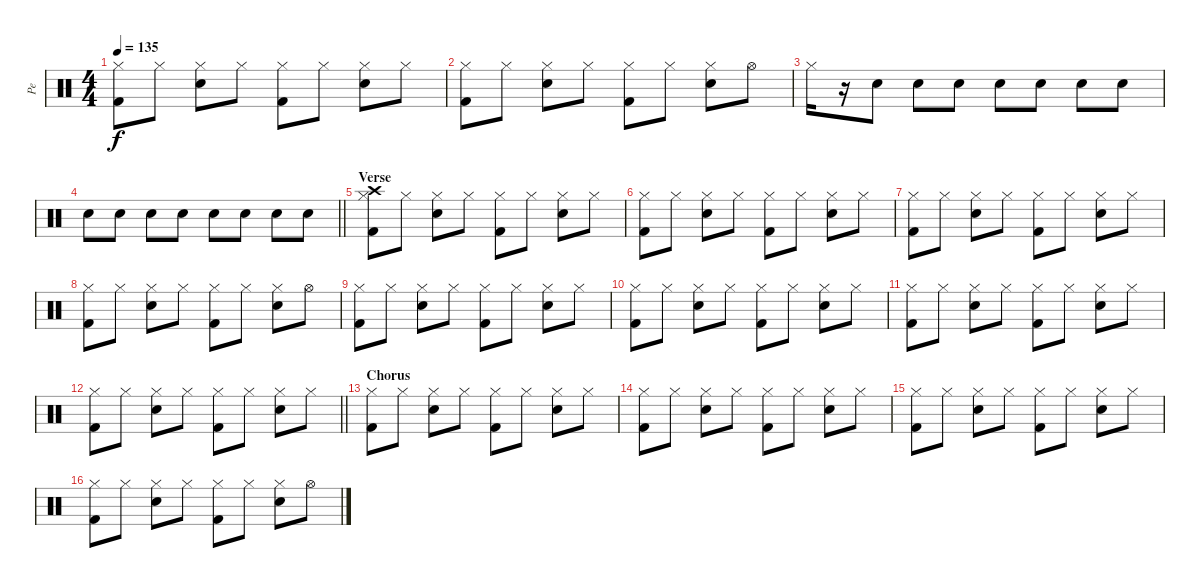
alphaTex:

\track ("Pe" "Pe") {instrument percussion}
\staff {score}
\articulation defaults
\ts (4 4)
\tempo 135
\clef neutral
\ks c
("Hi-Hat (closed)" "Kick (hit) 2").8{dy f} "Hi-Hat (closed)".8 ("Hi-Hat (closed)" "Electric Snare (hit)").8 "Hi-Hat (closed)".8 ("Hi-Hat (closed)" "Kick (hit) 2").8 "Hi-Hat (closed)".8 ("Hi-Hat (closed)" "Electric Snare (hit)").8 "Hi-Hat (closed)".8 |
("Hi-Hat (closed)" "Kick (hit) 2").8 "Hi-Hat (closed)".8 ("Hi-Hat (closed)" "Electric Snare (hit)").8 "Hi-Hat (closed)".8 ("Hi-Hat (closed)" "Kick (hit) 2").8 "Hi-Hat (closed)".8 ("Hi-Hat (closed)" "Electric Snare (hit)").8 "Hi-Hat (open)".8 |
"Hi-Hat (closed)".16 r.16{volume 6} "Electric Snare (hit)".8{volume 16} "Electric Snare (hit)".8 "Electric Snare (hit)".8 "Electric Snare (hit)".8 "Electric Snare (hit)".8 "Electric Snare (hit)".8 "Electric Snare (hit)".8 |
\barLineRight lightlight "Electric Snare (hit)".8 "Electric Snare (hit)".8 "Electric Snare (hit)".8 "Electric Snare (hit)".8 "Electric Snare (hit)".8 "Electric Snare (hit)".8 "Electric Snare (hit)".8 "Electric Snare (hit)".8
|
\section ("" "Verse")
("Crash high (hit)" "Hi-Hat (closed)" "Kick (hit) 2").8 "Hi-Hat (closed)".8 ("Hi-Hat (closed)" "Electric Snare (hit)").8 "Hi-Hat (closed)".8 ("Hi-Hat (closed)" "Kick (hit) 2").8 "Hi-Hat (closed)".8 ("Hi-Hat (closed)" "Electric Snare (hit)").8 "Hi-Hat (closed)".8 |
("Hi-Hat (closed)" "Kick (hit) 2").8 "Hi-Hat (closed)".8 ("Hi-Hat (closed)" "Electric Snare (hit)").8 "Hi-Hat (closed)".8 ("Hi-Hat (closed)" "Kick (hit) 2").8 "Hi-Hat (closed)".8 ("Hi-Hat (closed)" "Electric Snare (hit)").8 "Hi-Hat (closed)".8 |
("Hi-Hat (closed)" "Kick (hit) 2").8 "Hi-Hat (closed)".8 ("Hi-Hat (closed)" "Electric Snare (hit)").8 "Hi-Hat (closed)".8 ("Hi-Hat (closed)" "Kick (hit) 2").8 "Hi-Hat (closed)".8 ("Hi-Hat (closed)" "Electric Snare (hit)").8 "Hi-Hat (closed)".8 |
("Hi-Hat (closed)" "Kick (hit) 2").8 "Hi-Hat (closed)".8 ("Hi-Hat (closed)" "Electric Snare (hit)").8 "Hi-Hat (closed)".8 ("Hi-Hat (closed)" "Kick (hit) 2").8 "Hi-Hat (closed)".8 ("Hi-Hat (closed)" "Electric Snare (hit)").8 "Hi-Hat (open)".8 |
("Hi-Hat (closed)" "Kick (hit) 2").8 "Hi-Hat (closed)".8 ("Hi-Hat (closed)" "Electric Snare (hit)").8 "Hi-Hat (closed)".8 ("Hi-Hat (closed)" "Kick (hit) 2").8 "Hi-Hat (closed)".8 ("Hi-Hat (closed)" "Electric Snare (hit)").8 "Hi-Hat (closed)".8 |
("Hi-Hat (closed)" "Kick (hit) 2").8 "Hi-Hat (closed)".8 ("Hi-Hat (closed)" "Electric Snare (hit)").8 "Hi-Hat (closed)".8 ("Hi-Hat (closed)" "Kick (hit) 2").8 "Hi-Hat (closed)".8 ("Hi-Hat (closed)" "Electric Snare (hit)").8 "Hi-Hat (closed)".8 |
("Hi-Hat (closed)" "Kick (hit) 2").8 "Hi-Hat (closed)".8 ("Hi-Hat (closed)" "Electric Snare (hit)").8 "Hi-Hat (closed)".8 ("Hi-Hat (closed)" "Kick (hit) 2").8 "Hi-Hat (closed)".8 ("Hi-Hat (closed)" "Electric Snare (hit)").8 "Hi-Hat (closed)".8 |
\barLineRight lightlight
("Hi-Hat (closed)" "Kick (hit) 2").8 "Hi-Hat (closed)".8 ("Hi-Hat (closed)" "Electric Snare (hit)").8 "Hi-Hat (closed)".8 ("Hi-Hat (closed)" "Kick (hit) 2").8 "Hi-Hat (closed)".8 ("Hi-Hat (closed)" "Electric Snare (hit)").8 "Hi-Hat (closed)".8 |
\section ("" "Chorus")
("Hi-Hat (closed)" "Kick (hit) 2").8 "Hi-Hat (closed)".8 ("Hi-Hat (closed)" "Electric Snare (hit)").8 "Hi-Hat (closed)".8 ("Hi-Hat (closed)" "Kick (hit) 2").8 "Hi-Hat (closed)".8 ("Hi-Hat (closed)" "Electric Snare (hit)").8 "Hi-Hat (closed)".8 |
("Hi-Hat (closed)" "Kick (hit) 2").8 "Hi-Hat (closed)".8 ("Hi-Hat (closed)" "Electric Snare (hit)").8 "Hi-Hat (closed)".8 ("Hi-Hat (closed)" "Kick (hit) 2").8 "Hi-Hat (closed)".8 ("Hi-Hat (closed)" "Electric Snare (hit)").8 "Hi-Hat (closed)".8 |
("Hi-Hat (closed)" "Kick (hit) 2").8 "Hi-Hat (closed)".8 ("Hi-Hat (closed)" "Electric Snare (hit)").8 "Hi-Hat (closed)".8 ("Hi-Hat (closed)" "Kick (hit) 2").8 "Hi-Hat (closed)".8 ("Hi-Hat (closed)" "Electric Snare (hit)").8 "Hi-Hat (closed)".8 |
("Hi-Hat (closed)" "Kick (hit) 2").8 "Hi-Hat (closed)".8 ("Hi-Hat (closed)" "Electric Snare (hit)").8 "Hi-Hat (closed)".8 ("Hi-Hat (closed)" "Kick (hit) 2").8 "Hi-Hat (closed)".8 ("Hi-Hat (closed)" "Electric Snare (hit)").8 "Hi-Hat (open)".8
